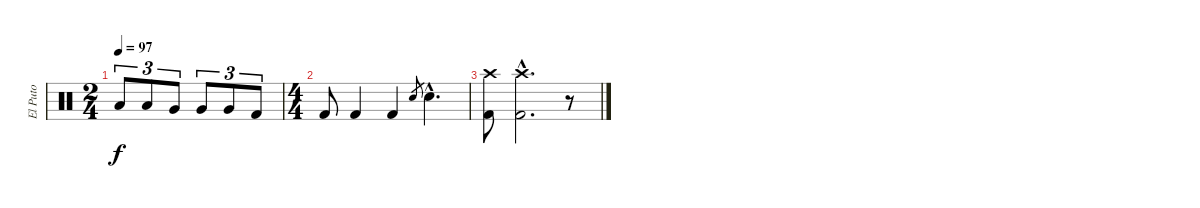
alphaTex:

\track ("El Puto" "El Puto") {instrument percussion}
\staff {score}
\articulation defaults
\ts (2 4)
\tempo 97
\clef neutral
\ks c "Low Tom (hit)".8{tu (3 2) dy f} "Low Tom (hit)".8{tu (3 2)} "Very Low Tom (hit)".8{tu (3 2)} "Very Low Tom (hit)".8{tu (3 2)} "Very Low Tom (hit)".8{tu (3 2)} "Kick (hit) 2".8{tu (3 2)}
|
\ts (4 4)
"Kick (hit) 2".8 "Kick (hit) 2".4 "Kick (hit) 2".4 "Snare (hit) 2".8{gr} "Snare (hit) 2"{hac}.4{d} |
("Crash high (hit)" "Kick (hit) 2").8 ("Crash high (hit)"{hac} "Kick (hit) 2"{hac}).2{d} r.8
